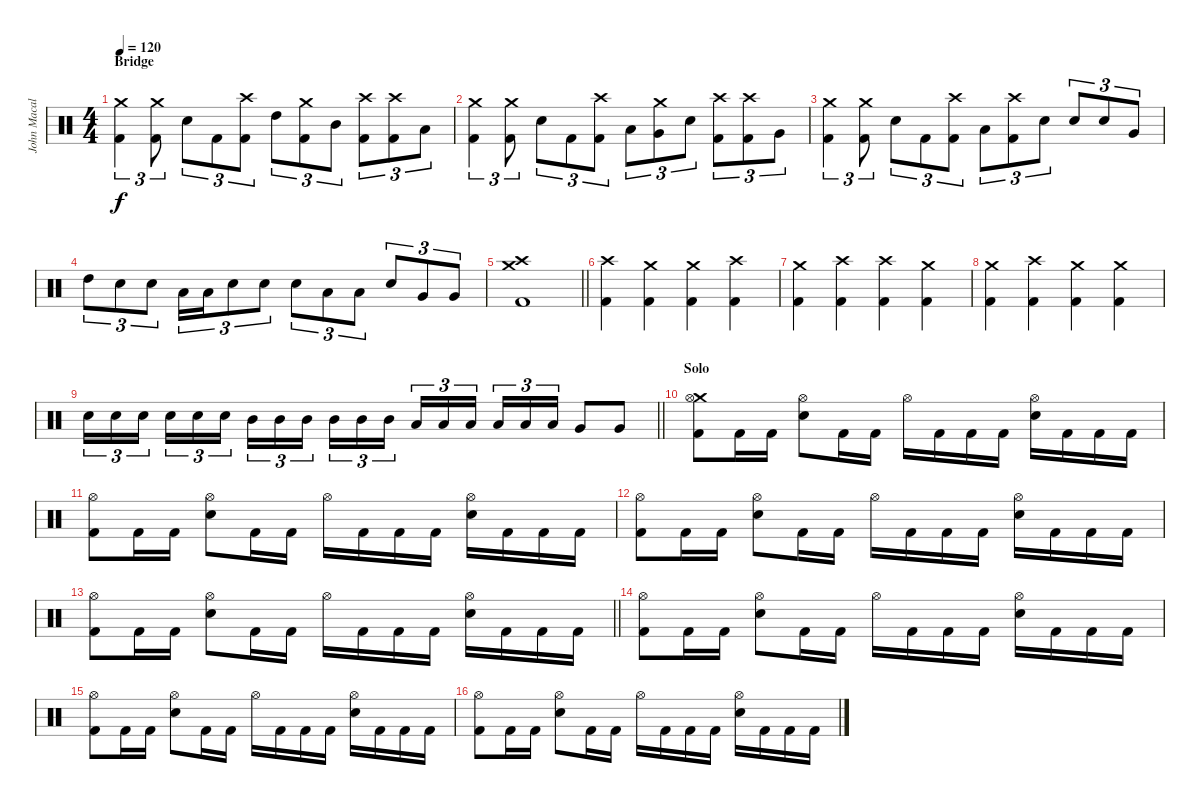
\track ("John Macaluso" "John Macal") {instrument percussion}
\staff {score}
\articulation defaults
\ts (4 4)
\section ("" "Bridge")
\tempo 120
\clef neutral
\ks c
("Crash medium (hit)" "Kick (hit) 2").4{tu (3 2) dy f} ("Crash medium (hit)" "Kick (hit) 2").8{tu (3 2)} "Snare (hit) 2".8{tu (3 2)} "Kick (hit) 2".8{tu (3 2)} ("Crash high (hit)" "Kick (hit) 2").8{tu (3 2)} "High Tom (hit)".8{tu (3 2)} ("Crash medium (hit)" "Kick (hit) 2").8{tu (3 2)} "Mid Tom (hit)".8{tu (3 2)} ("Crash high (hit)" "Kick (hit) 2").8{tu (3 2)} ("Crash high (hit)" "Kick (hit) 2").8{tu (3 2)} "Low Tom (hit)".8{tu (3 2)} |
("Crash medium (hit)" "Kick (hit) 2").4{tu (3 2)} ("Crash medium (hit)" "Kick (hit) 2").8{tu (3 2)} "Snare (hit) 2".8{tu (3 2)} "Kick (hit) 2".8{tu (3 2)} ("Crash high (hit)" "Kick (hit) 2").8{tu (3 2)} "Low Tom (hit)".8{tu (3 2)} ("Crash medium (hit)" "Very Low Tom (hit)").8{tu (3 2)} "Snare (hit) 2".8{tu (3 2)} ("Crash high (hit)" "Kick (hit) 2").8{tu (3 2)} ("Crash high (hit)" "Kick (hit) 2").8{tu (3 2)} "Very Low Tom (hit)".8{tu (3 2)} |
("Crash medium (hit)" "Kick (hit) 2").4{tu (3 2)} ("Crash medium (hit)" "Kick (hit) 2").8{tu (3 2)} "Snare (hit) 2".8{tu (3 2)} "Kick (hit) 2".8{tu (3 2)} ("Crash high (hit)" "Kick (hit) 2").8{tu (3 2)} "Low Tom (hit)".8{tu (3 2)} ("Crash high (hit)" "Kick (hit) 2").8{tu (3 2)} "Snare (hit) 2".8{tu (3 2)} "Snare (hit) 2".8{tu (3 2)} "Snare (hit) 2".8{tu (3 2)} "Very Low Tom (hit)".8{tu (3 2)} |
"High Tom (hit)".8{tu (3 2)} "Snare (hit) 2".8{tu (3 2)} "Snare (hit) 2".8{tu (3 2)} "Low Tom (hit)".16{tu (3 2)} "Low Tom (hit)".16{tu (3 2)} "Snare (hit) 2".8{tu (3 2)} "Snare (hit) 2".8{tu (3 2)} "Snare (hit) 2".8{tu (3 2)} "Low Tom (hit)".8{tu (3 2)} "Low Tom (hit)".8{tu (3 2)} "Snare (hit) 2".8{tu (3 2)} "Very Low Tom (hit)".8{tu (3 2)} "Very Low Tom (hit)".8{tu (3 2)} |
\barLineRight lightlight
("Crash medium (hit)" "Crash high (hit)" "Kick (hit) 2").1 |
("Crash high (hit)" "Kick (hit) 2").4 ("Crash medium (hit)" "Kick (hit) 2").4 ("Crash medium (hit)" "Kick (hit) 2").4 ("Crash high (hit)" "Kick (hit) 2").4 |
("Crash medium (hit)" "Kick (hit) 2").4 ("Crash high (hit)" "Kick (hit) 2").4 ("Crash high (hit)" "Kick (hit) 2").4 ("Crash medium (hit)" "Kick (hit) 2").4 |
("Crash medium (hit)" "Kick (hit) 2").4 ("Crash high (hit)" "Kick (hit) 2").4 ("Crash medium (hit)" "Kick (hit) 2").4 ("Crash medium (hit)" "Kick (hit) 2").4 |
\barLineRight lightlight "Snare (hit) 2".16{tu (3 2)} "Snare (hit) 2".16{tu (3 2)} "Snare (hit) 2".16{tu (3 2) beam splitsecondary} "Snare (hit) 2".16{tu (3 2)} "Snare (hit) 2".16{tu (3 2)} "Snare (hit) 2".16{tu (3 2)} "Mid Tom (hit)".16{tu (3 2)} "Mid Tom (hit)".16{tu (3 2)} "Mid Tom (hit)".16{tu (3 2) beam splitsecondary} "Mid Tom (hit)".16{tu (3 2)} "Mid Tom (hit)".16{tu (3 2)} "Mid Tom (hit)".16{tu (3 2)} "Low Tom (hit)".16{tu (3 2)} "Low Tom (hit)".16{tu (3 2)} "Low Tom (hit)".16{tu (3 2) beam splitsecondary} "Low Tom (hit)".16{tu (3 2)} "Low Tom (hit)".16{tu (3 2)} "Low Tom (hit)".16{tu (3 2)} "Very Low Tom (hit)".8 "Very Low Tom (hit)".8
|
\section ("" "Solo")
("Crash medium (hit)" "Hi-Hat (open)" "Kick (hit) 2").8 "Kick (hit) 2".16 "Kick (hit) 2".16 ("Hi-Hat (open)" "Snare (hit) 2").8 "Kick (hit) 2".16 "Kick (hit) 2".16 "Hi-Hat (open)".16 "Kick (hit) 2".16 "Kick (hit) 2".16 "Kick (hit) 2".16 ("Hi-Hat (open)" "Snare (hit) 2").16 "Kick (hit) 2".16 "Kick (hit) 2".16 "Kick (hit) 2".16 |
("Hi-Hat (open)" "Kick (hit) 2").8 "Kick (hit) 2".16 "Kick (hit) 2".16 ("Hi-Hat (open)" "Snare (hit) 2").8 "Kick (hit) 2".16 "Kick (hit) 2".16 "Hi-Hat (open)".16 "Kick (hit) 2".16 "Kick (hit) 2".16 "Kick (hit) 2".16 ("Hi-Hat (open)" "Snare (hit) 2").16 "Kick (hit) 2".16 "Kick (hit) 2".16 "Kick (hit) 2".16 |
("Hi-Hat (open)" "Kick (hit) 2").8 "Kick (hit) 2".16 "Kick (hit) 2".16 ("Hi-Hat (open)" "Snare (hit) 2").8 "Kick (hit) 2".16 "Kick (hit) 2".16 "Hi-Hat (open)".16 "Kick (hit) 2".16 "Kick (hit) 2".16 "Kick (hit) 2".16 ("Hi-Hat (open)" "Snare (hit) 2").16 "Kick (hit) 2".16 "Kick (hit) 2".16 "Kick (hit) 2".16 |
\barLineRight lightlight
("Hi-Hat (open)" "Kick (hit) 2").8 "Kick (hit) 2".16 "Kick (hit) 2".16 ("Hi-Hat (open)" "Snare (hit) 2").8 "Kick (hit) 2".16 "Kick (hit) 2".16 "Hi-Hat (open)".16 "Kick (hit) 2".16 "Kick (hit) 2".16 "Kick (hit) 2".16 ("Hi-Hat (open)" "Snare (hit) 2").16 "Kick (hit) 2".16 "Kick (hit) 2".16 "Kick (hit) 2".16 |
("Hi-Hat (open)" "Kick (hit) 2").8 "Kick (hit) 2".16 "Kick (hit) 2".16 ("Hi-Hat (open)" "Snare (hit) 2").8 "Kick (hit) 2".16 "Kick (hit) 2".16 "Hi-Hat (open)".16 "Kick (hit) 2".16 "Kick (hit) 2".16 "Kick (hit) 2".16 ("Hi-Hat (open)" "Snare (hit) 2").16 "Kick (hit) 2".16 "Kick (hit) 2".16 "Kick (hit) 2".16 |
("Hi-Hat (open)" "Kick (hit) 2").8 "Kick (hit) 2".16 "Kick (hit) 2".16 ("Hi-Hat (open)" "Snare (hit) 2").8 "Kick (hit) 2".16 "Kick (hit) 2".16 "Hi-Hat (open)".16 "Kick (hit) 2".16 "Kick (hit) 2".16 "Kick (hit) 2".16 ("Hi-Hat (open)" "Snare (hit) 2").16 "Kick (hit) 2".16 "Kick (hit) 2".16 "Kick (hit) 2".16 |
("Hi-Hat (open)" "Kick (hit) 2").8 "Kick (hit) 2".16 "Kick (hit) 2".16 ("Hi-Hat (open)" "Snare (hit) 2").8 "Kick (hit) 2".16 "Kick (hit) 2".16 "Hi-Hat (open)".16 "Kick (hit) 2".16 "Kick (hit) 2".16 "Kick (hit) 2".16 ("Hi-Hat (open)" "Snare (hit) 2").16 "Kick (hit) 2".16 "Kick (hit) 2".16 "Kick (hit) 2".16
